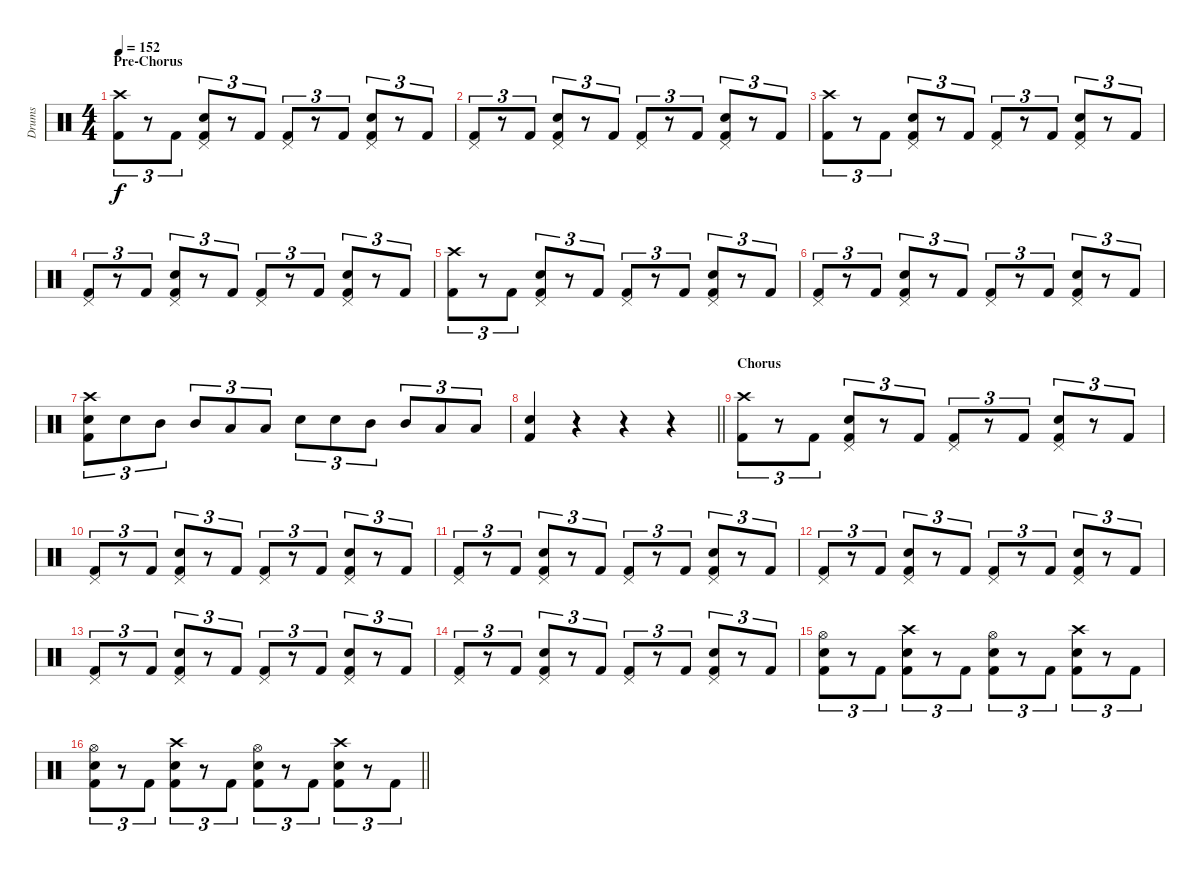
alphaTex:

\track ("Drums" "Drums") {instrument percussion}
\staff {score}
\articulation defaults
\ts (4 4)
\section ("" "Pre-Chorus")
\tempo 152
\clef neutral
\ks c
("Crash high (hit)" "Kick (hit) 2").8{tu (3 2) dy f} r.8{tu (3 2)} "Kick (hit) 2".8{tu (3 2)} ("Pedal Hi-Hat (hit)" "Snare (hit) 2" "Kick (hit) 2").8{tu (3 2)} r.8{tu (3 2)} "Kick (hit) 2".8{tu (3 2)} ("Pedal Hi-Hat (hit)" "Kick (hit) 2").8{tu (3 2)} r.8{tu (3 2)} "Kick (hit) 2".8{tu (3 2)} ("Pedal Hi-Hat (hit)" "Snare (hit) 2" "Kick (hit) 2").8{tu (3 2)} r.8{tu (3 2)} "Kick (hit) 2".8{tu (3 2)} |
("Pedal Hi-Hat (hit)" "Kick (hit) 2").8{tu (3 2)} r.8{tu (3 2)} "Kick (hit) 2".8{tu (3 2)} ("Pedal Hi-Hat (hit)" "Snare (hit) 2" "Kick (hit) 2").8{tu (3 2)} r.8{tu (3 2)} "Kick (hit) 2".8{tu (3 2)} ("Pedal Hi-Hat (hit)" "Kick (hit) 2").8{tu (3 2)} r.8{tu (3 2)} "Kick (hit) 2".8{tu (3 2)} ("Pedal Hi-Hat (hit)" "Snare (hit) 2" "Kick (hit) 2").8{tu (3 2)} r.8{tu (3 2)} "Kick (hit) 2".8{tu (3 2)} |
("Crash high (hit)" "Kick (hit) 2").8{tu (3 2)} r.8{tu (3 2)} "Kick (hit) 2".8{tu (3 2)} ("Pedal Hi-Hat (hit)" "Snare (hit) 2" "Kick (hit) 2").8{tu (3 2)} r.8{tu (3 2)} "Kick (hit) 2".8{tu (3 2)} ("Pedal Hi-Hat (hit)" "Kick (hit) 2").8{tu (3 2)} r.8{tu (3 2)} "Kick (hit) 2".8{tu (3 2)} ("Pedal Hi-Hat (hit)" "Snare (hit) 2" "Kick (hit) 2").8{tu (3 2)} r.8{tu (3 2)} "Kick (hit) 2".8{tu (3 2)} |
("Pedal Hi-Hat (hit)" "Kick (hit) 2").8{tu (3 2)} r.8{tu (3 2)} "Kick (hit) 2".8{tu (3 2)} ("Pedal Hi-Hat (hit)" "Snare (hit) 2" "Kick (hit) 2").8{tu (3 2)} r.8{tu (3 2)} "Kick (hit) 2".8{tu (3 2)} ("Pedal Hi-Hat (hit)" "Kick (hit) 2").8{tu (3 2)} r.8{tu (3 2)} "Kick (hit) 2".8{tu (3 2)} ("Pedal Hi-Hat (hit)" "Snare (hit) 2" "Kick (hit) 2").8{tu (3 2)} r.8{tu (3 2)} "Kick (hit) 2".8{tu (3 2)} |
("Crash high (hit)" "Kick (hit) 2").8{tu (3 2)} r.8{tu (3 2)} "Kick (hit) 2".8{tu (3 2)} ("Pedal Hi-Hat (hit)" "Snare (hit) 2" "Kick (hit) 2").8{tu (3 2)} r.8{tu (3 2)} "Kick (hit) 2".8{tu (3 2)} ("Pedal Hi-Hat (hit)" "Kick (hit) 2").8{tu (3 2)} r.8{tu (3 2)} "Kick (hit) 2".8{tu (3 2)} ("Pedal Hi-Hat (hit)" "Snare (hit) 2" "Kick (hit) 2").8{tu (3 2)} r.8{tu (3 2)} "Kick (hit) 2".8{tu (3 2)} |
("Pedal Hi-Hat (hit)" "Kick (hit) 2").8{tu (3 2)} r.8{tu (3 2)} "Kick (hit) 2".8{tu (3 2)} ("Pedal Hi-Hat (hit)" "Snare (hit) 2" "Kick (hit) 2").8{tu (3 2)} r.8{tu (3 2)} "Kick (hit) 2".8{tu (3 2)} ("Pedal Hi-Hat (hit)" "Kick (hit) 2").8{tu (3 2)} r.8{tu (3 2)} "Kick (hit) 2".8{tu (3 2)} ("Pedal Hi-Hat (hit)" "Snare (hit) 2" "Kick (hit) 2").8{tu (3 2)} r.8{tu (3 2)} "Kick (hit) 2".8{tu (3 2)} |
("Crash high (hit)" "Snare (hit) 2" "Kick (hit) 2").8{tu (3 2)} "Snare (hit) 2".8{tu (3 2)} "Mid Tom (hit)".8{tu (3 2)} "Mid Tom (hit)".8{tu (3 2)} "Low Tom (hit)".8{tu (3 2)} "Low Tom (hit)".8{tu (3 2)} "Snare (hit) 2".8{tu (3 2)} "Snare (hit) 2".8{tu (3 2)} "Mid Tom (hit)".8{tu (3 2)} "Mid Tom (hit)".8{tu (3 2)} "Low Tom (hit)".8{tu (3 2)} "Low Tom (hit)".8{tu (3 2)} |
\barLineRight lightlight
("Snare (hit) 2" "Kick (hit) 2").4 r.4 r.4 r.4 |
\section ("" "Chorus")
("Crash high (hit)" "Kick (hit) 2").8{tu (3 2)} r.8{tu (3 2)} "Kick (hit) 2".8{tu (3 2)} ("Pedal Hi-Hat (hit)" "Snare (hit) 2" "Kick (hit) 2").8{tu (3 2)} r.8{tu (3 2)} "Kick (hit) 2".8{tu (3 2)} ("Pedal Hi-Hat (hit)" "Kick (hit) 2").8{tu (3 2)} r.8{tu (3 2)} "Kick (hit) 2".8{tu (3 2)} ("Pedal Hi-Hat (hit)" "Snare (hit) 2" "Kick (hit) 2").8{tu (3 2)} r.8{tu (3 2)} "Kick (hit) 2".8{tu (3 2)} |
("Pedal Hi-Hat (hit)" "Kick (hit) 2").8{tu (3 2)} r.8{tu (3 2)} "Kick (hit) 2".8{tu (3 2)} ("Pedal Hi-Hat (hit)" "Snare (hit) 2" "Kick (hit) 2").8{tu (3 2)} r.8{tu (3 2)} "Kick (hit) 2".8{tu (3 2)} ("Pedal Hi-Hat (hit)" "Kick (hit) 2").8{tu (3 2)} r.8{tu (3 2)} "Kick (hit) 2".8{tu (3 2)} ("Pedal Hi-Hat (hit)" "Snare (hit) 2" "Kick (hit) 2").8{tu (3 2)} r.8{tu (3 2)} "Kick (hit) 2".8{tu (3 2)} |
("Pedal Hi-Hat (hit)" "Kick (hit) 2").8{tu (3 2)} r.8{tu (3 2)} "Kick (hit) 2".8{tu (3 2)} ("Pedal Hi-Hat (hit)" "Snare (hit) 2" "Kick (hit) 2").8{tu (3 2)} r.8{tu (3 2)} "Kick (hit) 2".8{tu (3 2)} ("Pedal Hi-Hat (hit)" "Kick (hit) 2").8{tu (3 2)} r.8{tu (3 2)} "Kick (hit) 2".8{tu (3 2)} ("Pedal Hi-Hat (hit)" "Snare (hit) 2" "Kick (hit) 2").8{tu (3 2)} r.8{tu (3 2)} "Kick (hit) 2".8{tu (3 2)} |
("Pedal Hi-Hat (hit)" "Kick (hit) 2").8{tu (3 2)} r.8{tu (3 2)} "Kick (hit) 2".8{tu (3 2)} ("Pedal Hi-Hat (hit)" "Snare (hit) 2" "Kick (hit) 2").8{tu (3 2)} r.8{tu (3 2)} "Kick (hit) 2".8{tu (3 2)} ("Pedal Hi-Hat (hit)" "Kick (hit) 2").8{tu (3 2)} r.8{tu (3 2)} "Kick (hit) 2".8{tu (3 2)} ("Pedal Hi-Hat (hit)" "Snare (hit) 2" "Kick (hit) 2").8{tu (3 2)} r.8{tu (3 2)} "Kick (hit) 2".8{tu (3 2)} |
("Pedal Hi-Hat (hit)" "Kick (hit) 2").8{tu (3 2)} r.8{tu (3 2)} "Kick (hit) 2".8{tu (3 2)} ("Pedal Hi-Hat (hit)" "Snare (hit) 2" "Kick (hit) 2").8{tu (3 2)} r.8{tu (3 2)} "Kick (hit) 2".8{tu (3 2)} ("Pedal Hi-Hat (hit)" "Kick (hit) 2").8{tu (3 2)} r.8{tu (3 2)} "Kick (hit) 2".8{tu (3 2)} ("Pedal Hi-Hat (hit)" "Snare (hit) 2" "Kick (hit) 2").8{tu (3 2)} r.8{tu (3 2)} "Kick (hit) 2".8{tu (3 2)} |
("Pedal Hi-Hat (hit)" "Kick (hit) 2").8{tu (3 2)} r.8{tu (3 2)} "Kick (hit) 2".8{tu (3 2)} ("Pedal Hi-Hat (hit)" "Snare (hit) 2" "Kick (hit) 2").8{tu (3 2)} r.8{tu (3 2)} "Kick (hit) 2".8{tu (3 2)} ("Pedal Hi-Hat (hit)" "Kick (hit) 2").8{tu (3 2)} r.8{tu (3 2)} "Kick (hit) 2".8{tu (3 2)} ("Pedal Hi-Hat (hit)" "Snare (hit) 2" "Kick (hit) 2").8{tu (3 2)} r.8{tu (3 2)} "Kick (hit) 2".8{tu (3 2)} |
("Hi-Hat (open)" "Snare (hit) 2" "Kick (hit) 2").8{tu (3 2)} r.8{tu (3 2)} "Kick (hit) 2".8{tu (3 2)} ("Crash high (hit)" "Snare (hit) 2" "Kick (hit) 2").8{tu (3 2)} r.8{tu (3 2)} "Kick (hit) 2".8{tu (3 2)} ("Hi-Hat (open)" "Snare (hit) 2" "Kick (hit) 2").8{tu (3 2)} r.8{tu (3 2)} "Kick (hit) 2".8{tu (3 2)} ("Crash high (hit)" "Snare (hit) 2" "Kick (hit) 2").8{tu (3 2)} r.8{tu (3 2)} "Kick (hit) 2".8{tu (3 2)} |
\barLineRight lightlight
("Hi-Hat (open)" "Snare (hit) 2" "Kick (hit) 2").8{tu (3 2)} r.8{tu (3 2)} "Kick (hit) 2".8{tu (3 2)} ("Crash high (hit)" "Snare (hit) 2" "Kick (hit) 2").8{tu (3 2)} r.8{tu (3 2)} "Kick (hit) 2".8{tu (3 2)} ("Hi-Hat (open)" "Snare (hit) 2" "Kick (hit) 2").8{tu (3 2)} r.8{tu (3 2)} "Kick (hit) 2".8{tu (3 2)} ("Crash high (hit)" "Snare (hit) 2" "Kick (hit) 2").8{tu (3 2)} r.8{tu (3 2)} "Kick (hit) 2".8{tu (3 2)}
